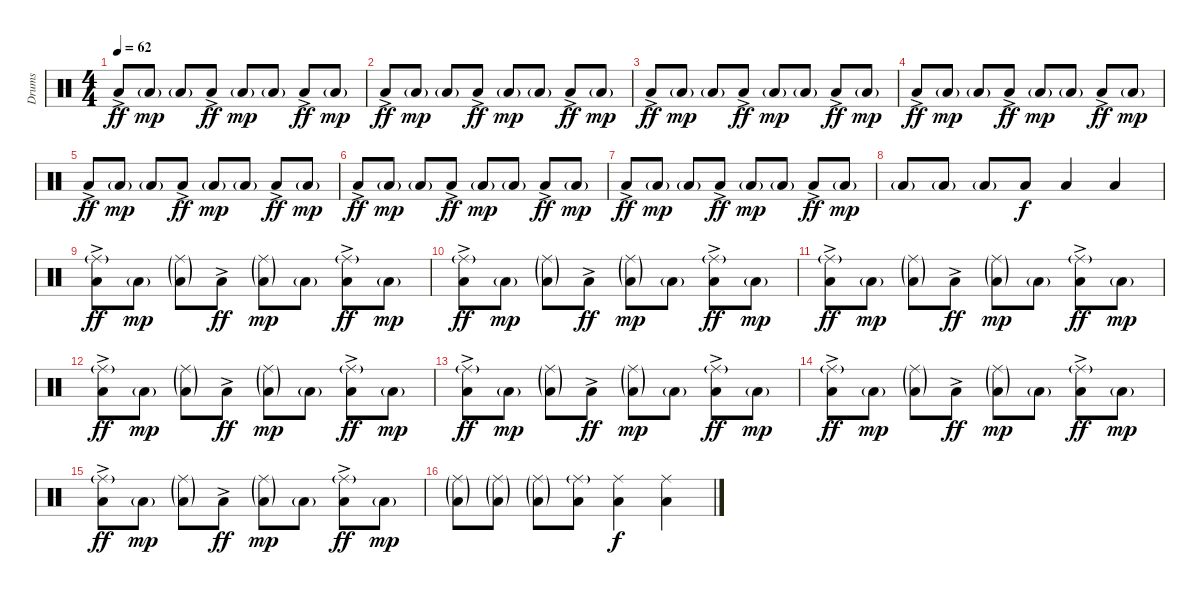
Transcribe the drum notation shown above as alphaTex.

\track ("Drums" "Drums") {instrument percussion}
\staff {score}
\articulation defaults
\ts (4 4)
\tempo 62
\clef neutral
\ks c "Low Floor Tom (hit)"{ac}.8{dy ff} "Low Floor Tom (hit)"{g}.8{dy mp} "Low Floor Tom (hit)"{g}.8 "Low Floor Tom (hit)"{ac}.8{dy ff} "Low Floor Tom (hit)"{g}.8{dy mp} "Low Floor Tom (hit)"{g}.8 "Low Floor Tom (hit)"{ac}.8{dy ff} "Low Floor Tom (hit)"{g}.8{dy mp}
|
"Low Floor Tom (hit)"{ac}.8{dy ff} "Low Floor Tom (hit)"{g}.8{dy mp} "Low Floor Tom (hit)"{g}.8 "Low Floor Tom (hit)"{ac}.8{dy ff} "Low Floor Tom (hit)"{g}.8{dy mp} "Low Floor Tom (hit)"{g}.8 "Low Floor Tom (hit)"{ac}.8{dy ff} "Low Floor Tom (hit)"{g}.8{dy mp} |
"Low Floor Tom (hit)"{ac}.8{dy ff} "Low Floor Tom (hit)"{g}.8{dy mp} "Low Floor Tom (hit)"{g}.8 "Low Floor Tom (hit)"{ac}.8{dy ff} "Low Floor Tom (hit)"{g}.8{dy mp} "Low Floor Tom (hit)"{g}.8 "Low Floor Tom (hit)"{ac}.8{dy ff} "Low Floor Tom (hit)"{g}.8{dy mp} |
"Low Floor Tom (hit)"{ac}.8{dy ff} "Low Floor Tom (hit)"{g}.8{dy mp} "Low Floor Tom (hit)"{g}.8 "Low Floor Tom (hit)"{ac}.8{dy ff} "Low Floor Tom (hit)"{g}.8{dy mp} "Low Floor Tom (hit)"{g}.8 "Low Floor Tom (hit)"{ac}.8{dy ff} "Low Floor Tom (hit)"{g}.8{dy mp} |
"Low Floor Tom (hit)"{ac}.8{dy ff} "Low Floor Tom (hit)"{g}.8{dy mp} "Low Floor Tom (hit)"{g}.8 "Low Floor Tom (hit)"{ac}.8{dy ff} "Low Floor Tom (hit)"{g}.8{dy mp} "Low Floor Tom (hit)"{g}.8 "Low Floor Tom (hit)"{ac}.8{dy ff} "Low Floor Tom (hit)"{g}.8{dy mp} |
"Low Floor Tom (hit)"{ac}.8{dy ff} "Low Floor Tom (hit)"{g}.8{dy mp} "Low Floor Tom (hit)"{g}.8 "Low Floor Tom (hit)"{ac}.8{dy ff} "Low Floor Tom (hit)"{g}.8{dy mp} "Low Floor Tom (hit)"{g}.8 "Low Floor Tom (hit)"{ac}.8{dy ff} "Low Floor Tom (hit)"{g}.8{dy mp} |
"Low Floor Tom (hit)"{ac}.8{dy ff} "Low Floor Tom (hit)"{g}.8{dy mp} "Low Floor Tom (hit)"{g}.8 "Low Floor Tom (hit)"{ac}.8{dy ff} "Low Floor Tom (hit)"{g}.8{dy mp} "Low Floor Tom (hit)"{g}.8 "Low Floor Tom (hit)"{ac}.8{dy ff} "Low Floor Tom (hit)"{g}.8{dy mp} |
"Low Floor Tom (hit)"{g}.8 "Low Floor Tom (hit)"{g}.8 "Low Floor Tom (hit)"{g}.8 "Low Floor Tom (hit)".8{dy f} "Low Floor Tom (hit)".4 "Low Floor Tom (hit)".4 |
("Ride (middle)"{g} "Low Floor Tom (hit)"{ac}).8{dy ff} "Low Floor Tom (hit)"{g}.8{dy mp} ("Ride (middle)"{g} "Low Floor Tom (hit)"{g}).8 "Low Floor Tom (hit)"{ac}.8{dy ff} ("Ride (middle)"{g} "Low Floor Tom (hit)"{g}).8{dy mp} "Low Floor Tom (hit)"{g}.8 ("Ride (middle)"{g} "Low Floor Tom (hit)"{ac}).8{dy ff} "Low Floor Tom (hit)"{g}.8{dy mp} |
("Ride (middle)"{g} "Low Floor Tom (hit)"{ac}).8{dy ff} "Low Floor Tom (hit)"{g}.8{dy mp} ("Ride (middle)"{g} "Low Floor Tom (hit)"{g}).8 "Low Floor Tom (hit)"{ac}.8{dy ff} ("Ride (middle)"{g} "Low Floor Tom (hit)"{g}).8{dy mp} "Low Floor Tom (hit)"{g}.8 ("Ride (middle)"{g} "Low Floor Tom (hit)"{ac}).8{dy ff} "Low Floor Tom (hit)"{g}.8{dy mp} |
("Ride (middle)"{g} "Low Floor Tom (hit)"{ac}).8{dy ff} "Low Floor Tom (hit)"{g}.8{dy mp} ("Ride (middle)"{g} "Low Floor Tom (hit)"{g}).8 "Low Floor Tom (hit)"{ac}.8{dy ff} ("Ride (middle)"{g} "Low Floor Tom (hit)"{g}).8{dy mp} "Low Floor Tom (hit)"{g}.8 ("Ride (middle)"{g} "Low Floor Tom (hit)"{ac}).8{dy ff} "Low Floor Tom (hit)"{g}.8{dy mp} |
("Ride (middle)"{g} "Low Floor Tom (hit)"{ac}).8{dy ff} "Low Floor Tom (hit)"{g}.8{dy mp} ("Ride (middle)"{g} "Low Floor Tom (hit)"{g}).8 "Low Floor Tom (hit)"{ac}.8{dy ff} ("Ride (middle)"{g} "Low Floor Tom (hit)"{g}).8{dy mp} "Low Floor Tom (hit)"{g}.8 ("Ride (middle)"{g} "Low Floor Tom (hit)"{ac}).8{dy ff} "Low Floor Tom (hit)"{g}.8{dy mp} |
("Ride (middle)"{g} "Low Floor Tom (hit)"{ac}).8{dy ff} "Low Floor Tom (hit)"{g}.8{dy mp} ("Ride (middle)"{g} "Low Floor Tom (hit)"{g}).8 "Low Floor Tom (hit)"{ac}.8{dy ff} ("Ride (middle)"{g} "Low Floor Tom (hit)"{g}).8{dy mp} "Low Floor Tom (hit)"{g}.8 ("Ride (middle)"{g} "Low Floor Tom (hit)"{ac}).8{dy ff} "Low Floor Tom (hit)"{g}.8{dy mp} |
("Ride (middle)"{g} "Low Floor Tom (hit)"{ac}).8{dy ff} "Low Floor Tom (hit)"{g}.8{dy mp} ("Ride (middle)"{g} "Low Floor Tom (hit)"{g}).8 "Low Floor Tom (hit)"{ac}.8{dy ff} ("Ride (middle)"{g} "Low Floor Tom (hit)"{g}).8{dy mp} "Low Floor Tom (hit)"{g}.8 ("Ride (middle)"{g} "Low Floor Tom (hit)"{ac}).8{dy ff} "Low Floor Tom (hit)"{g}.8{dy mp} |
("Ride (middle)"{g} "Low Floor Tom (hit)"{ac}).8{dy ff} "Low Floor Tom (hit)"{g}.8{dy mp} ("Ride (middle)"{g} "Low Floor Tom (hit)"{g}).8 "Low Floor Tom (hit)"{ac}.8{dy ff} ("Ride (middle)"{g} "Low Floor Tom (hit)"{g}).8{dy mp} "Low Floor Tom (hit)"{g}.8 ("Ride (middle)"{g} "Low Floor Tom (hit)"{ac}).8{dy ff} "Low Floor Tom (hit)"{g}.8{dy mp} |
("Ride (middle)"{g} "Low Floor Tom (hit)"{g}).8 ("Ride (middle)"{g} "Low Floor Tom (hit)"{g}).8 ("Ride (middle)"{g} "Low Floor Tom (hit)"{g}).8 ("Ride (middle)"{g} "Low Floor Tom (hit)").8 ("Ride (middle)" "Low Floor Tom (hit)").4{dy f} ("Ride (middle)" "Low Floor Tom (hit)").4
